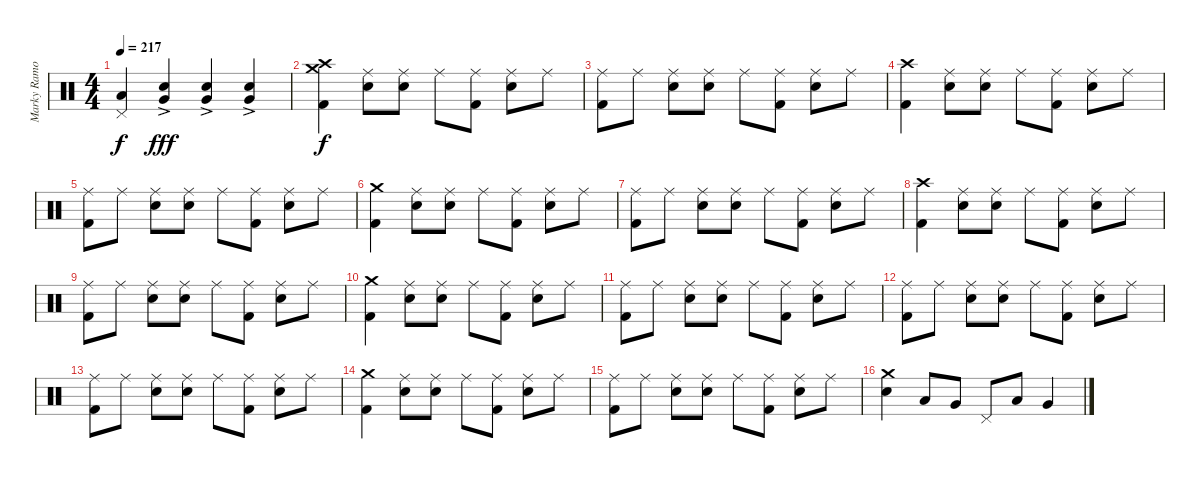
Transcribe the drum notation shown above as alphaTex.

\track ("Marky Ramone" "Marky Ramo") {instrument percussion}
\staff {score}
\articulation defaults
\ts (4 4)
\tempo 217
\clef neutral
\ks c
("Pedal Hi-Hat (hit)" "Low Tom (hit)").4{dy f} ("Electric Snare (hit)" "Very Low Tom (hit)"{ac}).4{dy fff} ("Electric Snare (hit)" "Very Low Tom (hit)"{ac}).4 ("Electric Snare (hit)" "Very Low Tom (hit)"{ac}).4 |
("Crash high (hit)" "Crash medium (hit)" "Kick (hit) 2").4{dy f} ("Ride (middle)" "Electric Snare (hit)").8 ("Ride (middle)" "Electric Snare (hit)").8 "Ride (middle)".8 ("Ride (middle)" "Kick (hit) 2").8 ("Ride (middle)" "Electric Snare (hit)").8 "Ride (middle)".8 |
("Ride (middle)" "Kick (hit) 2").8 "Ride (middle)".8 ("Ride (middle)" "Electric Snare (hit)").8 ("Ride (middle)" "Electric Snare (hit)").8 "Ride (middle)".8 ("Ride (middle)" "Kick (hit) 2").8 ("Ride (middle)" "Electric Snare (hit)").8 "Ride (middle)".8 |
("Crash high (hit)" "Kick (hit) 2").4 ("Ride (middle)" "Electric Snare (hit)").8 ("Ride (middle)" "Electric Snare (hit)").8 "Ride (middle)".8 ("Ride (middle)" "Kick (hit) 2").8 ("Ride (middle)" "Electric Snare (hit)").8 "Ride (middle)".8 |
("Ride (middle)" "Kick (hit) 2").8 "Ride (middle)".8 ("Ride (middle)" "Electric Snare (hit)").8 ("Ride (middle)" "Electric Snare (hit)").8 "Ride (middle)".8 ("Ride (middle)" "Kick (hit) 2").8 ("Ride (middle)" "Electric Snare (hit)").8 "Ride (middle)".8 |
("Crash medium (hit)" "Kick (hit) 2").4 ("Ride (middle)" "Electric Snare (hit)").8 ("Ride (middle)" "Electric Snare (hit)").8 "Ride (middle)".8 ("Ride (middle)" "Kick (hit) 2").8 ("Ride (middle)" "Electric Snare (hit)").8 "Ride (middle)".8 |
("Ride (middle)" "Kick (hit) 2").8 "Ride (middle)".8 ("Ride (middle)" "Electric Snare (hit)").8 ("Ride (middle)" "Electric Snare (hit)").8 "Ride (middle)".8 ("Ride (middle)" "Kick (hit) 2").8 ("Ride (middle)" "Electric Snare (hit)").8 "Ride (middle)".8 |
("Crash high (hit)" "Kick (hit) 2").4 ("Ride (middle)" "Electric Snare (hit)").8 ("Ride (middle)" "Electric Snare (hit)").8 "Ride (middle)".8 ("Ride (middle)" "Kick (hit) 2").8 ("Ride (middle)" "Electric Snare (hit)").8 "Ride (middle)".8 |
("Ride (middle)" "Kick (hit) 2").8 "Ride (middle)".8 ("Ride (middle)" "Electric Snare (hit)").8 ("Ride (middle)" "Electric Snare (hit)").8 "Ride (middle)".8 ("Ride (middle)" "Kick (hit) 2").8 ("Ride (middle)" "Electric Snare (hit)").8 "Ride (middle)".8 |
("Crash medium (hit)" "Kick (hit) 2").4 ("Ride (middle)" "Electric Snare (hit)").8 ("Ride (middle)" "Electric Snare (hit)").8 "Ride (middle)".8 ("Ride (middle)" "Kick (hit) 2").8 ("Ride (middle)" "Electric Snare (hit)").8 "Ride (middle)".8 |
("Ride (middle)" "Kick (hit) 2").8 "Ride (middle)".8 ("Ride (middle)" "Electric Snare (hit)").8 ("Ride (middle)" "Electric Snare (hit)").8 "Ride (middle)".8 ("Ride (middle)" "Kick (hit) 2").8 ("Ride (middle)" "Electric Snare (hit)").8 "Ride (middle)".8 |
("Ride (middle)" "Kick (hit) 2").8 "Ride (middle)".8 ("Ride (middle)" "Electric Snare (hit)").8 ("Ride (middle)" "Electric Snare (hit)").8 "Ride (middle)".8 ("Ride (middle)" "Kick (hit) 2").8 ("Ride (middle)" "Electric Snare (hit)").8 "Ride (middle)".8 |
("Ride (middle)" "Kick (hit) 2").8 "Ride (middle)".8 ("Ride (middle)" "Electric Snare (hit)").8 ("Ride (middle)" "Electric Snare (hit)").8 "Ride (middle)".8 ("Ride (middle)" "Kick (hit) 2").8 ("Ride (middle)" "Electric Snare (hit)").8 "Ride (middle)".8 |
("Crash medium (hit)" "Kick (hit) 2").4 ("Ride (middle)" "Electric Snare (hit)").8 ("Ride (middle)" "Electric Snare (hit)").8 "Ride (middle)".8 ("Ride (middle)" "Kick (hit) 2").8 ("Ride (middle)" "Electric Snare (hit)").8 "Ride (middle)".8 |
("Ride (middle)" "Kick (hit) 2").8 "Ride (middle)".8 ("Ride (middle)" "Electric Snare (hit)").8 ("Ride (middle)" "Electric Snare (hit)").8 "Ride (middle)".8 ("Ride (middle)" "Kick (hit) 2").8 ("Ride (middle)" "Electric Snare (hit)").8 "Ride (middle)".8 |
("Crash medium (hit)" "Electric Snare (hit)").4 "Low Tom (hit)".8 "Very Low Tom (hit)".8 "Pedal Hi-Hat (hit)".8 "Low Tom (hit)".8 "Very Low Tom (hit)".4
